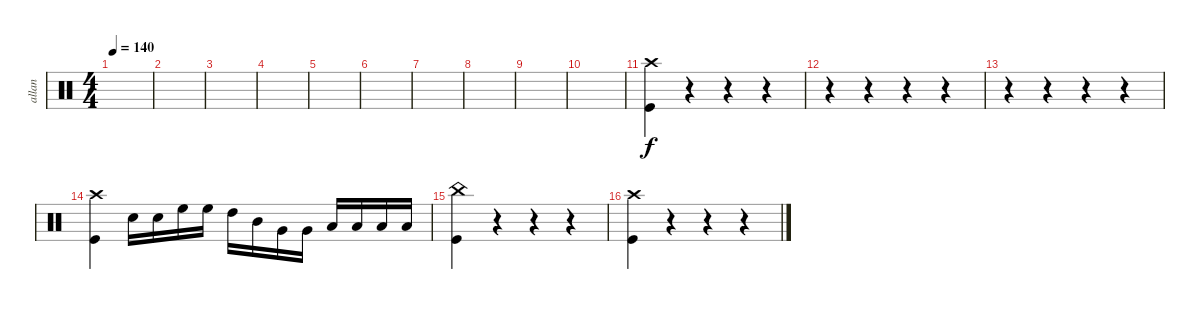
\track ("allan" "allan") {instrument percussion}
\staff {score}
\articulation defaults
\ts (4 4)
\tempo 140
\clef neutral
\ks c
|
|
|
|
|
|
|
|
|
|
("Crash high (hit)" "Kick (hit)").4 r.4 r.4 r.4 |
r.4 r.4 r.4 r.4 |
r.4 r.4 r.4 r.4 |
("Crash high (hit)" "Kick (hit)").4 "Snare (hit) 2".16 "Snare (hit) 2".16 "High Floor Tom (hit)".16 "High Floor Tom (hit)".16 "High Tom (hit)".16 "Mid Tom (hit)".16 "Very Low Tom (hit)".16 "Very Low Tom (hit)".16 "Low Floor Tom (hit)".16 "Low Floor Tom (hit)".16 "Low Floor Tom (hit)".16 "Low Floor Tom (hit)".16 |
("China (hit)" "Kick (hit)").4 r.4 r.4 r.4 |
("Crash high (hit)" "Kick (hit)").4 r.4 r.4 r.4
